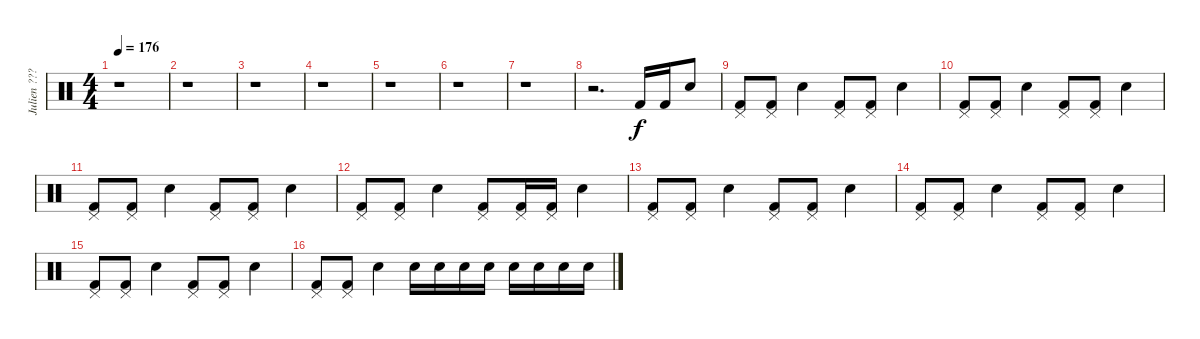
\track ("Julien ??? (Drum)" "Julien ???") {instrument percussion}
\staff {score}
\articulation defaults
\ts (4 4)
\tempo 176
\clef neutral
\ks c
r.1{dy f} |
r.1 |
r.1 |
r.1 |
r.1 |
r.1 |
r.1 |
r.2{d} "Kick (hit) 2".16 "Kick (hit) 2".16 "Electric Snare (hit)".8 |
("Pedal Hi-Hat (hit)" "Kick (hit) 2").8 ("Pedal Hi-Hat (hit)" "Kick (hit) 2").8 "Electric Snare (hit)".4 ("Pedal Hi-Hat (hit)" "Kick (hit) 2").8 ("Pedal Hi-Hat (hit)" "Kick (hit) 2").8 "Electric Snare (hit)".4 |
("Pedal Hi-Hat (hit)" "Kick (hit) 2").8 ("Pedal Hi-Hat (hit)" "Kick (hit) 2").8 "Electric Snare (hit)".4 ("Pedal Hi-Hat (hit)" "Kick (hit) 2").8 ("Pedal Hi-Hat (hit)" "Kick (hit) 2").8 "Electric Snare (hit)".4 |
("Pedal Hi-Hat (hit)" "Kick (hit) 2").8 ("Pedal Hi-Hat (hit)" "Kick (hit) 2").8 "Electric Snare (hit)".4 ("Pedal Hi-Hat (hit)" "Kick (hit) 2").8 ("Pedal Hi-Hat (hit)" "Kick (hit) 2").8 "Electric Snare (hit)".4 |
("Pedal Hi-Hat (hit)" "Kick (hit) 2").8 ("Pedal Hi-Hat (hit)" "Kick (hit) 2").8 "Electric Snare (hit)".4 ("Pedal Hi-Hat (hit)" "Kick (hit) 2").8 ("Pedal Hi-Hat (hit)" "Kick (hit) 2").16 ("Pedal Hi-Hat (hit)" "Kick (hit) 2").16 "Electric Snare (hit)".4 |
("Pedal Hi-Hat (hit)" "Kick (hit) 2").8 ("Pedal Hi-Hat (hit)" "Kick (hit) 2").8 "Electric Snare (hit)".4 ("Pedal Hi-Hat (hit)" "Kick (hit) 2").8 ("Pedal Hi-Hat (hit)" "Kick (hit) 2").8 "Electric Snare (hit)".4 |
("Pedal Hi-Hat (hit)" "Kick (hit) 2").8 ("Pedal Hi-Hat (hit)" "Kick (hit) 2").8 "Electric Snare (hit)".4 ("Pedal Hi-Hat (hit)" "Kick (hit) 2").8 ("Pedal Hi-Hat (hit)" "Kick (hit) 2").8 "Electric Snare (hit)".4 |
("Pedal Hi-Hat (hit)" "Kick (hit) 2").8 ("Pedal Hi-Hat (hit)" "Kick (hit) 2").8 "Electric Snare (hit)".4 ("Pedal Hi-Hat (hit)" "Kick (hit) 2").8 ("Pedal Hi-Hat (hit)" "Kick (hit) 2").8 "Electric Snare (hit)".4 |
("Pedal Hi-Hat (hit)" "Kick (hit) 2").8 ("Pedal Hi-Hat (hit)" "Kick (hit) 2").8 "Electric Snare (hit)".4 "Electric Snare (hit)".16 "Electric Snare (hit)".16 "Electric Snare (hit)".16 "Electric Snare (hit)".16 "Electric Snare (hit)".16 "Electric Snare (hit)".16 "Electric Snare (hit)".16 "Electric Snare (hit)".16
